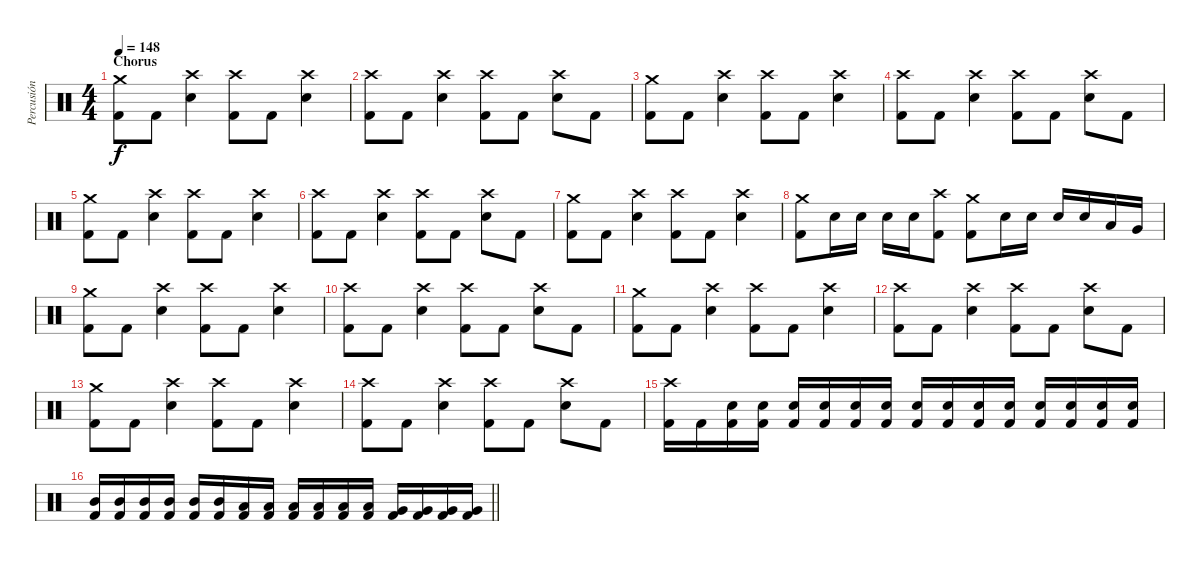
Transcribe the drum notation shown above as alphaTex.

\track ("Percusión" "Percusión") {instrument percussion}
\staff {score}
\articulation defaults
\ts (4 4)
\section ("" "Chorus")
\tempo 148
\clef neutral
\ks c
("Crash medium (hit)" "Kick (hit) 2").8{dy f} "Kick (hit) 2".8 ("Crash high (hit)" "Electric Snare (hit)").4 ("Crash high (hit)" "Kick (hit) 2").8 "Kick (hit) 2".8 ("Crash high (hit)" "Electric Snare (hit)").4 |
("Crash high (hit)" "Kick (hit) 2").8 "Kick (hit) 2".8 ("Crash high (hit)" "Electric Snare (hit)").4 ("Crash high (hit)" "Kick (hit) 2").8 "Kick (hit) 2".8 ("Crash high (hit)" "Electric Snare (hit)").8 "Kick (hit) 2".8 |
("Crash medium (hit)" "Kick (hit) 2").8 "Kick (hit) 2".8 ("Crash high (hit)" "Electric Snare (hit)").4 ("Crash high (hit)" "Kick (hit) 2").8 "Kick (hit) 2".8 ("Crash high (hit)" "Electric Snare (hit)").4 |
("Crash high (hit)" "Kick (hit) 2").8 "Kick (hit) 2".8 ("Crash high (hit)" "Electric Snare (hit)").4 ("Crash high (hit)" "Kick (hit) 2").8 "Kick (hit) 2".8 ("Crash high (hit)" "Electric Snare (hit)").8 "Kick (hit) 2".8 |
("Crash medium (hit)" "Kick (hit) 2").8 "Kick (hit) 2".8 ("Crash high (hit)" "Electric Snare (hit)").4 ("Crash high (hit)" "Kick (hit) 2").8 "Kick (hit) 2".8 ("Crash high (hit)" "Electric Snare (hit)").4 |
("Crash high (hit)" "Kick (hit) 2").8 "Kick (hit) 2".8 ("Crash high (hit)" "Electric Snare (hit)").4 ("Crash high (hit)" "Kick (hit) 2").8 "Kick (hit) 2".8 ("Crash high (hit)" "Electric Snare (hit)").8 "Kick (hit) 2".8 |
("Crash medium (hit)" "Kick (hit) 2").8 "Kick (hit) 2".8 ("Crash high (hit)" "Electric Snare (hit)").4 ("Crash high (hit)" "Kick (hit) 2").8 "Kick (hit) 2".8 ("Crash high (hit)" "Electric Snare (hit)").4 |
("Crash medium (hit)" "Kick (hit) 2").8 "Electric Snare (hit)".16 "Electric Snare (hit)".16 "Electric Snare (hit)".16 "Electric Snare (hit)".16 ("Crash high (hit)" "Kick (hit) 2").8 ("Crash medium (hit)" "Kick (hit) 2").8 "Electric Snare (hit)".16 "Electric Snare (hit)".16 "Electric Snare (hit)".16 "Electric Snare (hit)".16 "Low Tom (hit)".16 "Very Low Tom (hit)".16 |
("Crash medium (hit)" "Kick (hit) 2").8 "Kick (hit) 2".8 ("Crash high (hit)" "Electric Snare (hit)").4 ("Crash high (hit)" "Kick (hit) 2").8 "Kick (hit) 2".8 ("Crash high (hit)" "Electric Snare (hit)").4 |
("Crash high (hit)" "Kick (hit) 2").8 "Kick (hit) 2".8 ("Crash high (hit)" "Electric Snare (hit)").4 ("Crash high (hit)" "Kick (hit) 2").8 "Kick (hit) 2".8 ("Crash high (hit)" "Electric Snare (hit)").8 "Kick (hit) 2".8 |
("Crash medium (hit)" "Kick (hit) 2").8 "Kick (hit) 2".8 ("Crash high (hit)" "Electric Snare (hit)").4 ("Crash high (hit)" "Kick (hit) 2").8 "Kick (hit) 2".8 ("Crash high (hit)" "Electric Snare (hit)").4 |
("Crash high (hit)" "Kick (hit) 2").8 "Kick (hit) 2".8 ("Crash high (hit)" "Electric Snare (hit)").4 ("Crash high (hit)" "Kick (hit) 2").8 "Kick (hit) 2".8 ("Crash high (hit)" "Electric Snare (hit)").8 "Kick (hit) 2".8 |
("Crash medium (hit)" "Kick (hit) 2").8 "Kick (hit) 2".8 ("Crash high (hit)" "Electric Snare (hit)").4 ("Crash high (hit)" "Kick (hit) 2").8 "Kick (hit) 2".8 ("Crash high (hit)" "Electric Snare (hit)").4 |
("Crash high (hit)" "Kick (hit) 2").8 "Kick (hit) 2".8 ("Crash high (hit)" "Electric Snare (hit)").4 ("Crash high (hit)" "Kick (hit) 2").8 "Kick (hit) 2".8 ("Crash high (hit)" "Electric Snare (hit)").8 "Kick (hit) 2".8 |
("Crash high (hit)" "Kick (hit) 2").16 "Kick (hit) 2".16 ("Electric Snare (hit)" "Kick (hit) 2").16 ("Electric Snare (hit)" "Kick (hit) 2").16 ("Electric Snare (hit)" "Kick (hit) 2").16 ("Electric Snare (hit)" "Kick (hit) 2").16 ("Electric Snare (hit)" "Kick (hit) 2").16 ("Electric Snare (hit)" "Kick (hit) 2").16 ("Electric Snare (hit)" "Kick (hit) 2").16 ("Electric Snare (hit)" "Kick (hit) 2").16 ("Electric Snare (hit)" "Kick (hit) 2").16 ("Electric Snare (hit)" "Kick (hit) 2").16 ("Electric Snare (hit)" "Kick (hit) 2").16 ("Electric Snare (hit)" "Kick (hit) 2").16 ("Electric Snare (hit)" "Kick (hit) 2").16 ("Electric Snare (hit)" "Kick (hit) 2").16 |
\barLineRight lightlight
("Mid Tom (hit)" "Kick (hit) 2").16 ("Mid Tom (hit)" "Kick (hit) 2").16 ("Mid Tom (hit)" "Kick (hit) 2").16 ("Mid Tom (hit)" "Kick (hit) 2").16 ("Mid Tom (hit)" "Kick (hit) 2").16 ("Mid Tom (hit)" "Kick (hit) 2").16 ("Low Tom (hit)" "Kick (hit) 2").16 ("Low Tom (hit)" "Kick (hit) 2").16 ("Low Tom (hit)" "Kick (hit) 2").16 ("Low Tom (hit)" "Kick (hit) 2").16 ("Low Tom (hit)" "Kick (hit) 2").16 ("Low Tom (hit)" "Kick (hit) 2").16 ("Very Low Tom (hit)" "Kick (hit) 2").16 ("Very Low Tom (hit)" "Kick (hit) 2").16 ("Very Low Tom (hit)" "Kick (hit) 2").16 ("Very Low Tom (hit)" "Kick (hit) 2").16
